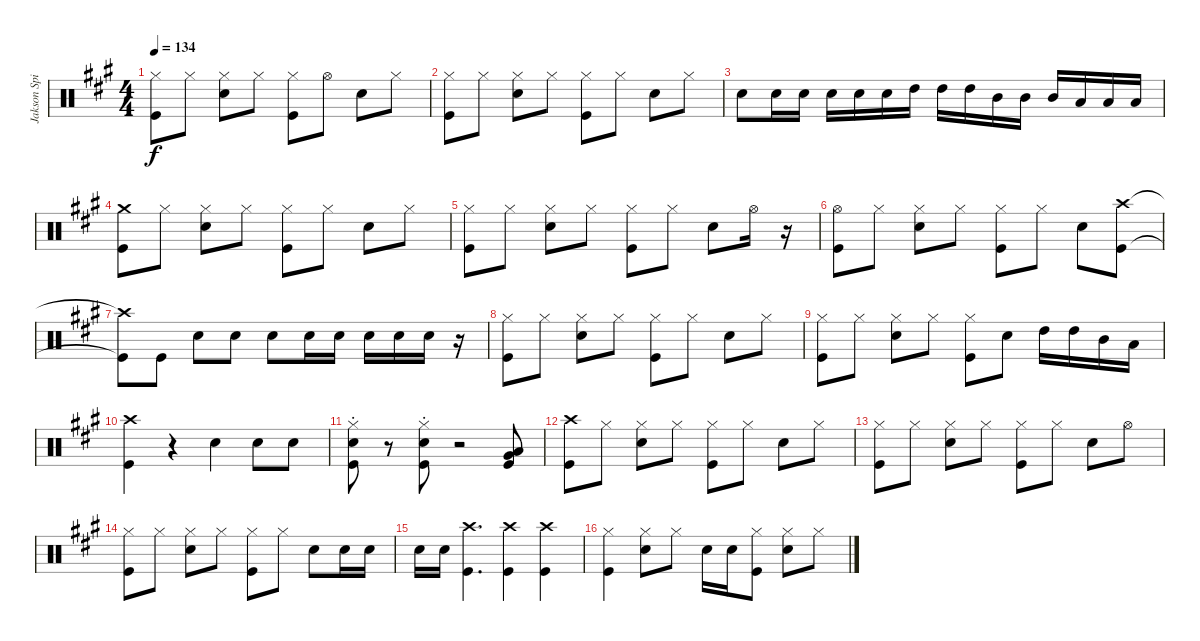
\track ("Jakson Spires Drums" "Jakson Spi") {instrument percussion}
\staff {score}
\articulation defaults
\ts (4 4)
\tempo 134
\clef neutral
\ks a
("Hi-Hat (closed)" "Kick (hit)").8{dy f} "Hi-Hat (closed)".8 ("Hi-Hat (closed)" "Snare (hit) 2").8 "Hi-Hat (closed)".8 ("Hi-Hat (closed)" "Kick (hit)").8 "Hi-Hat (open)".8 "Snare (hit) 2".8 "Hi-Hat (closed)".8 |
("Hi-Hat (closed)" "Kick (hit)").8 "Hi-Hat (closed)".8 ("Hi-Hat (closed)" "Snare (hit) 2").8 "Hi-Hat (closed)".8 ("Hi-Hat (closed)" "Kick (hit)").8 "Hi-Hat (closed)".8 "Snare (hit) 2".8 "Hi-Hat (closed)".8 |
"Snare (hit) 2".8 "Snare (hit) 2".16 "Snare (hit) 2".16 "Snare (hit) 2".16 "Snare (hit) 2".16 "Snare (hit) 2".16 "High Tom (hit)".16 "High Tom (hit)".16 "High Tom (hit)".16 "Mid Tom (hit)".16 "Mid Tom (hit)".16 "Mid Tom (hit)".16 "Low Tom (hit)".16 "Low Tom (hit)".16 "Low Tom (hit)".16 |
("Crash medium (hit)" "Kick (hit)").8 "Hi-Hat (closed)".8 ("Hi-Hat (closed)" "Snare (hit) 2").8 "Hi-Hat (closed)".8 ("Hi-Hat (closed)" "Kick (hit)").8 "Hi-Hat (closed)".8 "Snare (hit) 2".8 "Hi-Hat (closed)".8 |
("Hi-Hat (closed)" "Kick (hit)").8 "Hi-Hat (closed)".8 ("Hi-Hat (closed)" "Snare (hit) 2").8 "Hi-Hat (closed)".8 ("Hi-Hat (closed)" "Kick (hit)").8 "Hi-Hat (closed)".8 "Snare (hit) 2".8 "Hi-Hat (open)".16 r.16 |
("Hi-Hat (open)" "Kick (hit)").8 "Hi-Hat (closed)".8 ("Hi-Hat (closed)" "Snare (hit) 2").8 "Hi-Hat (closed)".8 ("Hi-Hat (closed)" "Kick (hit)").8 "Hi-Hat (closed)".8 "Snare (hit) 2".8 ("Crash high (hit)" "Kick (hit)").8 |
("Crash high (hit)"{t} "Kick (hit)"{t}).8 "Kick (hit)".8 "Snare (hit) 2".8 "Snare (hit) 2".8 "Snare (hit) 2".8 "Snare (hit) 2".16 "Snare (hit) 2".16 "Snare (hit) 2".16 "Snare (hit) 2".16 "Snare (hit) 2".16 r.16 |
("Hi-Hat (closed)" "Kick (hit)").8 "Hi-Hat (closed)".8 ("Hi-Hat (closed)" "Snare (hit) 2").8 "Hi-Hat (closed)".8 ("Hi-Hat (closed)" "Kick (hit)").8 "Hi-Hat (closed)".8 "Snare (hit) 2".8 "Hi-Hat (closed)".8 |
("Hi-Hat (closed)" "Kick (hit)").8 "Hi-Hat (closed)".8 ("Hi-Hat (closed)" "Snare (hit) 2").8 "Hi-Hat (closed)".8 ("Hi-Hat (closed)" "Kick (hit)").8 "Snare (hit) 2".8 "High Tom (hit)".16 "High Tom (hit)".16 "Mid Tom (hit)".16 "Low Tom (hit)".16 |
("Crash high (hit)" "Kick (hit)").4 r.4 "Snare (hit) 2".4 "Snare (hit) 2".8 "Snare (hit) 2".8 |
("Hi-Hat (closed)" "Snare (hit) 2" "Kick (hit)"{st}).8 r.8 ("Hi-Hat (closed)" "Snare (hit) 2" "Kick (hit)"{st}).8 r.2 ("Very Low Tom (hit)" "Low Floor Tom (hit)" "Kick (hit)").8 |
("Crash high (hit)" "Kick (hit)").8 "Hi-Hat (closed)".8 ("Hi-Hat (closed)" "Snare (hit) 2").8 "Hi-Hat (closed)".8 ("Hi-Hat (closed)" "Kick (hit)").8 "Hi-Hat (closed)".8 "Snare (hit) 2".8 "Hi-Hat (closed)".8 |
("Hi-Hat (closed)" "Kick (hit)").8 "Hi-Hat (closed)".8 ("Hi-Hat (closed)" "Snare (hit) 2").8 "Hi-Hat (closed)".8 ("Hi-Hat (closed)" "Kick (hit)").8 "Hi-Hat (closed)".8 "Snare (hit) 2".8 "Hi-Hat (open)".8 |
("Hi-Hat (closed)" "Kick (hit)").8 "Hi-Hat (closed)".8 ("Hi-Hat (closed)" "Snare (hit) 2").8 "Hi-Hat (closed)".8 ("Hi-Hat (closed)" "Kick (hit)").8 "Hi-Hat (closed)".8 "Snare (hit) 2".8 "Snare (hit) 2".16 "Snare (hit) 2".16 |
"Snare (hit) 2".16 "Snare (hit) 2".16 ("Crash high (hit)" "Kick (hit)").4{d} ("Crash high (hit)" "Kick (hit)").4 ("Crash high (hit)" "Kick (hit)").4 |
("Hi-Hat (closed)" "Kick (hit)").4 ("Hi-Hat (closed)" "Snare (hit) 2").8 "Hi-Hat (closed)".8 "Snare (hit) 2".16 "Snare (hit) 2".16 ("Hi-Hat (closed)" "Kick (hit)").8 ("Hi-Hat (closed)" "Snare (hit) 2").8 "Hi-Hat (closed)".8
